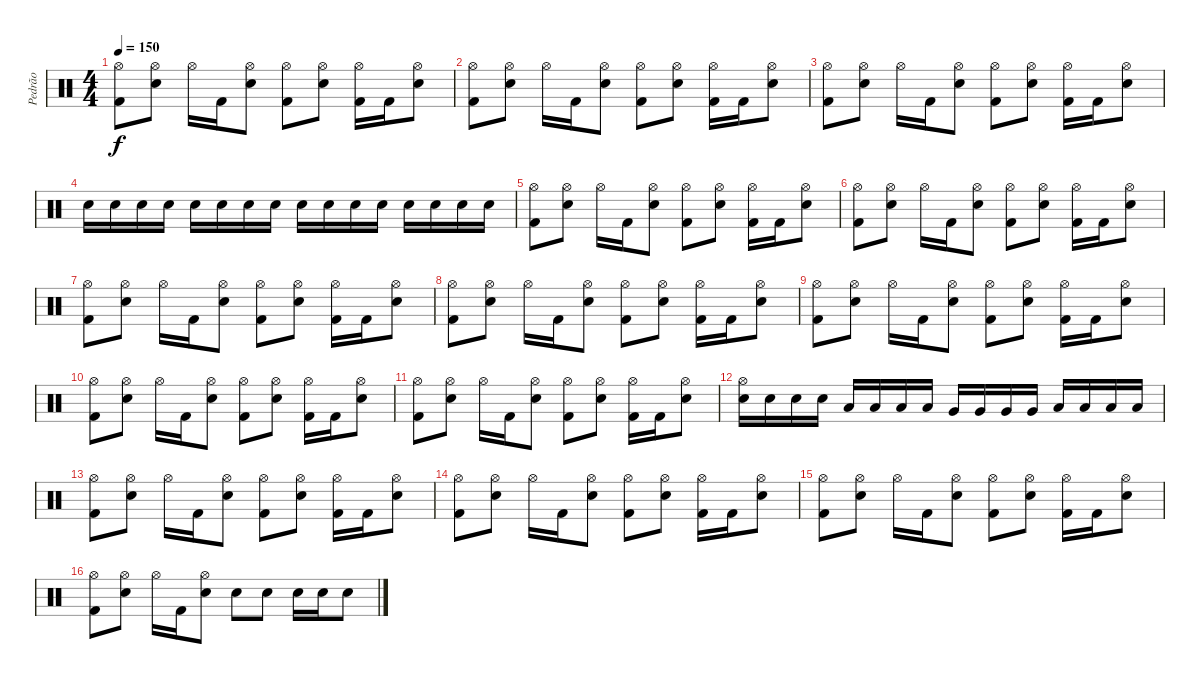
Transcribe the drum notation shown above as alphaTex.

\track ("Pedrão" "Pedrão") {instrument percussion}
\staff {score}
\articulation defaults
\ts (4 4)
\tempo 150
\clef neutral
\ks c
("Hi-Hat (open)" "Kick (hit) 2").8{dy f} ("Hi-Hat (open)" "Snare (hit) 2").8 "Hi-Hat (open)".16 "Kick (hit) 2".16 ("Hi-Hat (open)" "Snare (hit) 2").8 ("Hi-Hat (open)" "Kick (hit) 2").8 ("Hi-Hat (open)" "Snare (hit) 2").8 ("Hi-Hat (open)" "Kick (hit) 2").16 "Kick (hit) 2".16 ("Hi-Hat (open)" "Snare (hit) 2").8 |
("Hi-Hat (open)" "Kick (hit) 2").8 ("Hi-Hat (open)" "Snare (hit) 2").8 "Hi-Hat (open)".16 "Kick (hit) 2".16 ("Hi-Hat (open)" "Snare (hit) 2").8 ("Hi-Hat (open)" "Kick (hit) 2").8 ("Hi-Hat (open)" "Snare (hit) 2").8 ("Hi-Hat (open)" "Kick (hit) 2").16 "Kick (hit) 2".16 ("Hi-Hat (open)" "Snare (hit) 2").8 |
("Hi-Hat (open)" "Kick (hit) 2").8 ("Hi-Hat (open)" "Snare (hit) 2").8 "Hi-Hat (open)".16 "Kick (hit) 2".16 ("Hi-Hat (open)" "Snare (hit) 2").8 ("Hi-Hat (open)" "Kick (hit) 2").8 ("Hi-Hat (open)" "Snare (hit) 2").8 ("Hi-Hat (open)" "Kick (hit) 2").16 "Kick (hit) 2".16 ("Hi-Hat (open)" "Snare (hit) 2").8 |
"Snare (hit) 2".16 "Snare (hit) 2".16 "Snare (hit) 2".16 "Snare (hit) 2".16 "Snare (hit) 2".16 "Snare (hit) 2".16 "Snare (hit) 2".16 "Snare (hit) 2".16 "Snare (hit) 2".16 "Snare (hit) 2".16 "Snare (hit) 2".16 "Snare (hit) 2".16 "Snare (hit) 2".16 "Snare (hit) 2".16 "Snare (hit) 2".16 "Snare (hit) 2".16 |
("Hi-Hat (open)" "Kick (hit) 2").8 ("Hi-Hat (open)" "Snare (hit) 2").8 "Hi-Hat (open)".16 "Kick (hit) 2".16 ("Hi-Hat (open)" "Snare (hit) 2").8 ("Hi-Hat (open)" "Kick (hit) 2").8 ("Hi-Hat (open)" "Snare (hit) 2").8 ("Hi-Hat (open)" "Kick (hit) 2").16 "Kick (hit) 2".16 ("Hi-Hat (open)" "Snare (hit) 2").8 |
("Hi-Hat (open)" "Kick (hit) 2").8 ("Hi-Hat (open)" "Snare (hit) 2").8 "Hi-Hat (open)".16 "Kick (hit) 2".16 ("Hi-Hat (open)" "Snare (hit) 2").8 ("Hi-Hat (open)" "Kick (hit) 2").8 ("Hi-Hat (open)" "Snare (hit) 2").8 ("Hi-Hat (open)" "Kick (hit) 2").16 "Kick (hit) 2".16 ("Hi-Hat (open)" "Snare (hit) 2").8 |
("Hi-Hat (open)" "Kick (hit) 2").8 ("Hi-Hat (open)" "Snare (hit) 2").8 "Hi-Hat (open)".16 "Kick (hit) 2".16 ("Hi-Hat (open)" "Snare (hit) 2").8 ("Hi-Hat (open)" "Kick (hit) 2").8 ("Hi-Hat (open)" "Snare (hit) 2").8 ("Hi-Hat (open)" "Kick (hit) 2").16 "Kick (hit) 2".16 ("Hi-Hat (open)" "Snare (hit) 2").8 |
("Hi-Hat (open)" "Kick (hit) 2").8 ("Hi-Hat (open)" "Snare (hit) 2").8 "Hi-Hat (open)".16 "Kick (hit) 2".16 ("Hi-Hat (open)" "Snare (hit) 2").8 ("Hi-Hat (open)" "Kick (hit) 2").8 ("Hi-Hat (open)" "Snare (hit) 2").8 ("Hi-Hat (open)" "Kick (hit) 2").16 "Kick (hit) 2".16 ("Hi-Hat (open)" "Snare (hit) 2").8 |
("Hi-Hat (open)" "Kick (hit) 2").8 ("Hi-Hat (open)" "Snare (hit) 2").8 "Hi-Hat (open)".16 "Kick (hit) 2".16 ("Hi-Hat (open)" "Snare (hit) 2").8 ("Hi-Hat (open)" "Kick (hit) 2").8 ("Hi-Hat (open)" "Snare (hit) 2").8 ("Hi-Hat (open)" "Kick (hit) 2").16 "Kick (hit) 2".16 ("Hi-Hat (open)" "Snare (hit) 2").8 |
("Hi-Hat (open)" "Kick (hit) 2").8 ("Hi-Hat (open)" "Snare (hit) 2").8 "Hi-Hat (open)".16 "Kick (hit) 2".16 ("Hi-Hat (open)" "Snare (hit) 2").8 ("Hi-Hat (open)" "Kick (hit) 2").8 ("Hi-Hat (open)" "Snare (hit) 2").8 ("Hi-Hat (open)" "Kick (hit) 2").16 "Kick (hit) 2".16 ("Hi-Hat (open)" "Snare (hit) 2").8 |
("Hi-Hat (open)" "Kick (hit) 2").8 ("Hi-Hat (open)" "Snare (hit) 2").8 "Hi-Hat (open)".16 "Kick (hit) 2".16 ("Hi-Hat (open)" "Snare (hit) 2").8 ("Hi-Hat (open)" "Kick (hit) 2").8 ("Hi-Hat (open)" "Snare (hit) 2").8 ("Hi-Hat (open)" "Kick (hit) 2").16 "Kick (hit) 2".16 ("Hi-Hat (open)" "Snare (hit) 2").8 |
("Hi-Hat (open)" "Electric Snare (hit)").16 "Electric Snare (hit)".16 "Electric Snare (hit)".16 "Electric Snare (hit)".16 "Low Tom (hit)".16 "Low Tom (hit)".16 "Low Tom (hit)".16 "Low Tom (hit)".16 "Very Low Tom (hit)".16 "Very Low Tom (hit)".16 "Very Low Tom (hit)".16 "Very Low Tom (hit)".16 "Low Floor Tom (hit)".16 "Low Floor Tom (hit)".16 "Low Floor Tom (hit)".16 "Low Floor Tom (hit)".16 |
("Hi-Hat (open)" "Kick (hit) 2").8 ("Hi-Hat (open)" "Snare (hit) 2").8 "Hi-Hat (open)".16 "Kick (hit) 2".16 ("Hi-Hat (open)" "Snare (hit) 2").8 ("Hi-Hat (open)" "Kick (hit) 2").8 ("Hi-Hat (open)" "Snare (hit) 2").8 ("Hi-Hat (open)" "Kick (hit) 2").16 "Kick (hit) 2".16 ("Hi-Hat (open)" "Snare (hit) 2").8 |
("Hi-Hat (open)" "Kick (hit) 2").8 ("Hi-Hat (open)" "Snare (hit) 2").8 "Hi-Hat (open)".16 "Kick (hit) 2".16 ("Hi-Hat (open)" "Snare (hit) 2").8 ("Hi-Hat (open)" "Kick (hit) 2").8 ("Hi-Hat (open)" "Snare (hit) 2").8 ("Hi-Hat (open)" "Kick (hit) 2").16 "Kick (hit) 2".16 ("Hi-Hat (open)" "Snare (hit) 2").8 |
("Hi-Hat (open)" "Kick (hit) 2").8 ("Hi-Hat (open)" "Snare (hit) 2").8 "Hi-Hat (open)".16 "Kick (hit) 2".16 ("Hi-Hat (open)" "Snare (hit) 2").8 ("Hi-Hat (open)" "Kick (hit) 2").8 ("Hi-Hat (open)" "Snare (hit) 2").8 ("Hi-Hat (open)" "Kick (hit) 2").16 "Kick (hit) 2".16 ("Hi-Hat (open)" "Snare (hit) 2").8 |
("Hi-Hat (open)" "Kick (hit) 2").8 ("Hi-Hat (open)" "Snare (hit) 2").8 "Hi-Hat (open)".16 "Kick (hit) 2".16 ("Hi-Hat (open)" "Snare (hit) 2").8 "Snare (hit) 2".8 "Snare (hit) 2".8 "Snare (hit) 2".16 "Snare (hit) 2".16 "Snare (hit) 2".8
